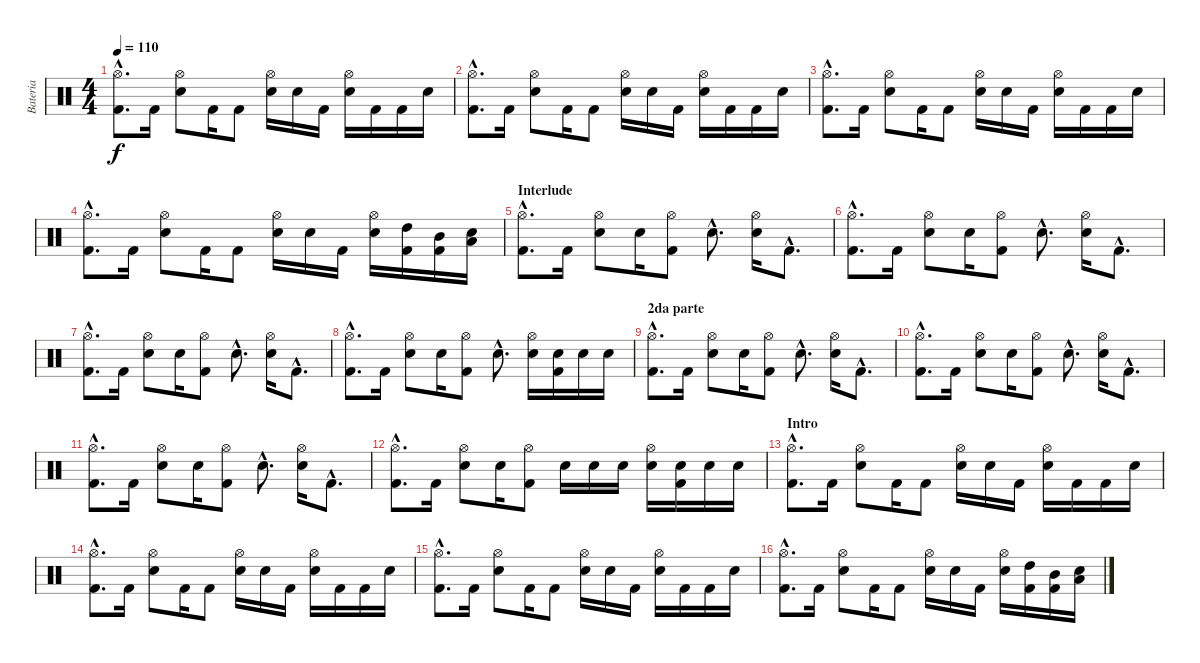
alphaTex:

\track ("Bateria" "Bateria") {instrument percussion}
\staff {score}
\articulation defaults
\ts (4 4)
\tempo 110
\clef neutral
\ks c
("Kick (hit) 2"{hac} "Hi-Hat (open)"{hac}).8{d dy f} "Kick (hit) 2".16 ("Electric Snare (hit)" "Hi-Hat (open)").8 "Kick (hit) 2".16 "Kick (hit) 2".8 ("Electric Snare (hit)" "Hi-Hat (open)").16 "Electric Snare (hit)".16 "Kick (hit) 2".16 ("Electric Snare (hit)" "Hi-Hat (open)").16 "Kick (hit) 2".16 "Kick (hit) 2".16 "Electric Snare (hit)".16 |
("Kick (hit) 2"{hac} "Hi-Hat (open)"{hac}).8{d} "Kick (hit) 2".16 ("Electric Snare (hit)" "Hi-Hat (open)").8 "Kick (hit) 2".16 "Kick (hit) 2".8 ("Electric Snare (hit)" "Hi-Hat (open)").16 "Electric Snare (hit)".16 "Kick (hit) 2".16 ("Electric Snare (hit)" "Hi-Hat (open)").16 "Kick (hit) 2".16 "Kick (hit) 2".16 "Electric Snare (hit)".16 |
("Kick (hit) 2"{hac} "Hi-Hat (open)"{hac}).8{d} "Kick (hit) 2".16 ("Electric Snare (hit)" "Hi-Hat (open)").8 "Kick (hit) 2".16 "Kick (hit) 2".8 ("Electric Snare (hit)" "Hi-Hat (open)").16 "Electric Snare (hit)".16 "Kick (hit) 2".16 ("Electric Snare (hit)" "Hi-Hat (open)").16 "Kick (hit) 2".16 "Kick (hit) 2".16 "Electric Snare (hit)".16 |
("Kick (hit) 2"{hac} "Hi-Hat (open)"{hac}).8{d} "Kick (hit) 2".16 ("Electric Snare (hit)" "Hi-Hat (open)").8 "Kick (hit) 2".16 "Kick (hit) 2".8 ("Electric Snare (hit)" "Hi-Hat (open)").16 "Electric Snare (hit)".16 "Kick (hit) 2".16 ("Electric Snare (hit)" "Hi-Hat (open)").16 ("Kick (hit) 2" "High Tom (hit)").16 ("Kick (hit) 2" "Mid Tom (hit)").16 ("Electric Snare (hit)" "Low Tom (hit)").16 |
\section ("" "Interlude")
("Kick (hit) 2"{hac} "Hi-Hat (open)"{hac}).8{d} "Kick (hit) 2".16 ("Electric Snare (hit)" "Hi-Hat (open)").8 "Electric Snare (hit)".16 ("Kick (hit) 2" "Hi-Hat (open)").8 "Electric Snare (hit)"{hac}.8{d} ("Electric Snare (hit)" "Hi-Hat (open)").16 "Kick (hit) 2"{hac}.8{d} |
("Kick (hit) 2"{hac} "Hi-Hat (open)"{hac}).8{d} "Kick (hit) 2".16 ("Electric Snare (hit)" "Hi-Hat (open)").8 "Electric Snare (hit)".16 ("Kick (hit) 2" "Hi-Hat (open)").8 "Electric Snare (hit)"{hac}.8{d} ("Electric Snare (hit)" "Hi-Hat (open)").16 "Kick (hit) 2"{hac}.8{d} |
("Kick (hit) 2"{hac} "Hi-Hat (open)"{hac}).8{d} "Kick (hit) 2".16 ("Electric Snare (hit)" "Hi-Hat (open)").8 "Electric Snare (hit)".16 ("Kick (hit) 2" "Hi-Hat (open)").8 "Electric Snare (hit)"{hac}.8{d} ("Electric Snare (hit)" "Hi-Hat (open)").16 "Kick (hit) 2"{hac}.8{d} |
("Kick (hit) 2"{hac} "Hi-Hat (open)"{hac}).8{d} "Kick (hit) 2".16 ("Electric Snare (hit)" "Hi-Hat (open)").8 "Electric Snare (hit)".16 ("Kick (hit) 2" "Hi-Hat (open)").8 "Electric Snare (hit)"{hac}.8{d} ("Electric Snare (hit)" "Hi-Hat (open)").16 ("Kick (hit) 2" "Electric Snare (hit)").16 "Electric Snare (hit)".16 "Electric Snare (hit)".16 |
\section ("" "2da parte")
("Kick (hit) 2"{hac} "Hi-Hat (open)"{hac}).8{d} "Kick (hit) 2".16 ("Electric Snare (hit)" "Hi-Hat (open)").8 "Electric Snare (hit)".16 ("Kick (hit) 2" "Hi-Hat (open)").8 "Electric Snare (hit)"{hac}.8{d} ("Electric Snare (hit)" "Hi-Hat (open)").16 "Kick (hit) 2"{hac}.8{d} |
("Kick (hit) 2"{hac} "Hi-Hat (open)"{hac}).8{d} "Kick (hit) 2".16 ("Electric Snare (hit)" "Hi-Hat (open)").8 "Electric Snare (hit)".16 ("Kick (hit) 2" "Hi-Hat (open)").8 "Electric Snare (hit)"{hac}.8{d} ("Electric Snare (hit)" "Hi-Hat (open)").16 "Kick (hit) 2"{hac}.8{d} |
("Kick (hit) 2"{hac} "Hi-Hat (open)"{hac}).8{d} "Kick (hit) 2".16 ("Electric Snare (hit)" "Hi-Hat (open)").8 "Electric Snare (hit)".16 ("Kick (hit) 2" "Hi-Hat (open)").8 "Electric Snare (hit)"{hac}.8{d} ("Electric Snare (hit)" "Hi-Hat (open)").16 "Kick (hit) 2"{hac}.8{d} |
("Kick (hit) 2"{hac} "Hi-Hat (open)"{hac}).8{d} "Kick (hit) 2".16 ("Electric Snare (hit)" "Hi-Hat (open)").8 "Electric Snare (hit)".16 ("Kick (hit) 2" "Hi-Hat (open)").8 "Electric Snare (hit)".16 "Electric Snare (hit)".16 "Electric Snare (hit)".16 ("Electric Snare (hit)" "Hi-Hat (open)").16 ("Kick (hit) 2" "Electric Snare (hit)").16 "Electric Snare (hit)".16 "Electric Snare (hit)".16 |
\section ("" "Intro")
("Kick (hit) 2"{hac} "Hi-Hat (open)"{hac}).8{d} "Kick (hit) 2".16 ("Electric Snare (hit)" "Hi-Hat (open)").8 "Kick (hit) 2".16 "Kick (hit) 2".8 ("Electric Snare (hit)" "Hi-Hat (open)").16 "Electric Snare (hit)".16 "Kick (hit) 2".16 ("Electric Snare (hit)" "Hi-Hat (open)").16 "Kick (hit) 2".16 "Kick (hit) 2".16 "Electric Snare (hit)".16 |
("Kick (hit) 2"{hac} "Hi-Hat (open)"{hac}).8{d} "Kick (hit) 2".16 ("Electric Snare (hit)" "Hi-Hat (open)").8 "Kick (hit) 2".16 "Kick (hit) 2".8 ("Electric Snare (hit)" "Hi-Hat (open)").16 "Electric Snare (hit)".16 "Kick (hit) 2".16 ("Electric Snare (hit)" "Hi-Hat (open)").16 "Kick (hit) 2".16 "Kick (hit) 2".16 "Electric Snare (hit)".16 |
("Kick (hit) 2"{hac} "Hi-Hat (open)"{hac}).8{d} "Kick (hit) 2".16 ("Electric Snare (hit)" "Hi-Hat (open)").8 "Kick (hit) 2".16 "Kick (hit) 2".8 ("Electric Snare (hit)" "Hi-Hat (open)").16 "Electric Snare (hit)".16 "Kick (hit) 2".16 ("Electric Snare (hit)" "Hi-Hat (open)").16 "Kick (hit) 2".16 "Kick (hit) 2".16 "Electric Snare (hit)".16 |
("Kick (hit) 2"{hac} "Hi-Hat (open)"{hac}).8{d} "Kick (hit) 2".16 ("Electric Snare (hit)" "Hi-Hat (open)").8 "Kick (hit) 2".16 "Kick (hit) 2".8 ("Electric Snare (hit)" "Hi-Hat (open)").16 "Electric Snare (hit)".16 "Kick (hit) 2".16 ("Electric Snare (hit)" "Hi-Hat (open)").16 ("Kick (hit) 2" "High Tom (hit)").16 ("Kick (hit) 2" "Mid Tom (hit)").16 ("Electric Snare (hit)" "Low Tom (hit)").16
